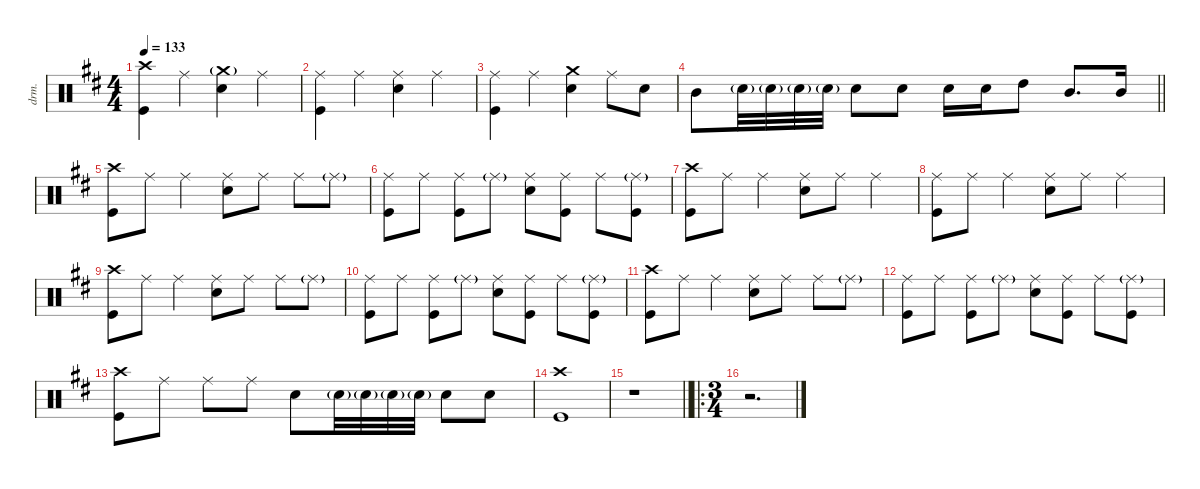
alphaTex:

\defaultSystemsLayout 4
\hideDynamics
\bracketExtendMode nobrackets
\otherSystemsTrackNameOrientation horizontal
\track ("Drums" "drm.") {defaultSystemsLayout 4 instrument percussion}
\staff {score}
\articulation defaults
\ts (4 4)
\tempo 133
\clef neutral
\ks bminor
("Crash high (hit)"{acc forcenatural} "Kick (hit)"{acc forcenatural}).4{dy f beam Down} "Ride (middle)"{acc forcenatural}.4{beam Down} ("Crash medium (hit)"{g acc forcenatural} "Snare (hit) 2"{acc forcenatural}).4{beam Down} "Ride (middle)"{acc forcenatural}.4{beam Down} |
("Ride (middle)"{acc forcenatural} "Kick (hit)"{acc forcenatural}).4{beam Down} "Ride (middle)"{acc forcenatural}.4{beam Down} ("Ride (middle)"{acc forcenatural} "Snare (hit) 2"{acc forcenatural}).4{beam Down} "Ride (middle)"{acc forcenatural}.4{beam Down} |
("Ride (middle)"{acc forcenatural} "Kick (hit)"{acc forcenatural}).4{beam Down} "Ride (middle)"{acc forcenatural}.4{beam Down} ("Crash medium (hit)"{acc forcenatural} "Snare (hit) 2"{acc forcenatural}).4{beam Down} "Ride (middle)"{acc forcenatural}.8{beam Down} "Snare (hit) 2"{acc forcenatural}.8{beam Down} |
\barLineRight lightlight "Mid Tom (hit)"{acc forcenatural}.8{beam Down} "Snare (hit) 2"{g acc forcenatural}.32{dy mf beam Down} "Snare (hit) 2"{g acc forcenatural}.32{dy mp beam Down} "Snare (hit) 2"{g acc forcenatural}.32{dy mf beam Down} "Snare (hit) 2"{g acc forcenatural}.32{dy p beam Down} "Snare (hit) 2"{acc forcenatural}.8{dy f beam Down} "Snare (hit) 2"{acc forcenatural}.8{beam Down} "Snare (hit) 2"{acc forcenatural}.16{beam Down} "Snare (hit) 2"{acc forcenatural}.16{dy mf beam Down} "High Tom (hit)"{acc forcenatural}.8{dy f beam Down} "Mid Tom (hit)"{acc forcenatural}.8{d beam Up} "Mid Tom (hit)"{acc forcenatural}.16{beam Up}
|
("Crash high (hit)"{acc forcenatural} "Kick (hit)"{acc forcenatural}).8{beam Down} "Ride (middle)"{acc forcenatural}.8{beam Down} "Ride (middle)"{acc forcenatural}.4{beam Down} ("Ride (middle)"{acc forcenatural} "Snare (hit) 2"{acc forcenatural}).8{beam Down} "Ride (middle)"{acc forcenatural}.8{beam Down} "Ride (middle)"{acc forcenatural}.8{beam Down} "Ride (middle)"{g acc forcenatural}.8{dy mf beam Down} |
("Ride (middle)"{acc forcenatural} "Kick (hit)"{acc forcenatural}).8{dy f beam Down} "Ride (middle)"{acc forcenatural}.8{beam Down} ("Ride (middle)"{acc forcenatural} "Kick (hit)"{acc forcenatural}).8{beam Down} "Ride (middle)"{g acc forcenatural}.8{dy mf beam Down} ("Ride (middle)"{acc forcenatural} "Snare (hit) 2"{acc forcenatural}).8{dy f beam Down} ("Ride (middle)"{acc forcenatural} "Kick (hit)"{acc forcenatural}).8{beam Down} "Ride (middle)"{acc forcenatural}.8{beam Down} ("Ride (middle)"{g acc forcenatural} "Kick (hit)"{acc forcenatural}).8{beam Down} |
("Crash high (hit)"{acc forcenatural} "Kick (hit)"{acc forcenatural}).8{beam Down} "Ride (middle)"{acc forcenatural}.8{beam Down} "Ride (middle)"{acc forcenatural}.4{beam Down} ("Ride (middle)"{acc forcenatural} "Snare (hit) 2"{acc forcenatural}).8{beam Down} "Ride (middle)"{acc forcenatural}.8{beam Down} "Ride (middle)"{acc forcenatural}.4{beam Down} |
("Ride (middle)"{acc forcenatural} "Kick (hit)"{acc forcenatural}).8{beam Down} "Ride (middle)"{acc forcenatural}.8{beam Down} "Ride (middle)"{acc forcenatural}.4{beam Down} ("Ride (middle)"{acc forcenatural} "Snare (hit) 2"{acc forcenatural}).8{beam Down} "Ride (middle)"{acc forcenatural}.8{beam Down} "Ride (middle)"{acc forcenatural}.4{beam Down} |
("Crash high (hit)"{acc forcenatural} "Kick (hit)"{acc forcenatural}).8{beam Down} "Ride (middle)"{acc forcenatural}.8{beam Down} "Ride (middle)"{acc forcenatural}.4{beam Down} ("Ride (middle)"{acc forcenatural} "Snare (hit) 2"{acc forcenatural}).8{beam Down} "Ride (middle)"{acc forcenatural}.8{beam Down} "Ride (middle)"{acc forcenatural}.8{beam Down} "Ride (middle)"{g acc forcenatural}.8{dy mf beam Down} |
("Ride (middle)"{acc forcenatural} "Kick (hit)"{acc forcenatural}).8{dy f beam Down} "Ride (middle)"{acc forcenatural}.8{beam Down} ("Ride (middle)"{acc forcenatural} "Kick (hit)"{acc forcenatural}).8{beam Down} "Ride (middle)"{g acc forcenatural}.8{dy mf beam Down} ("Ride (middle)"{acc forcenatural} "Snare (hit) 2"{acc forcenatural}).8{dy f beam Down} ("Ride (middle)"{acc forcenatural} "Kick (hit)"{acc forcenatural}).8{beam Down} "Ride (middle)"{acc forcenatural}.8{beam Down} ("Ride (middle)"{g acc forcenatural} "Kick (hit)"{acc forcenatural}).8{beam Down} |
("Crash high (hit)"{acc forcenatural} "Kick (hit)"{acc forcenatural}).8{beam Down} "Ride (middle)"{acc forcenatural}.8{beam Down} "Ride (middle)"{acc forcenatural}.4{beam Down} ("Ride (middle)"{acc forcenatural} "Snare (hit) 2"{acc forcenatural}).8{beam Down} "Ride (middle)"{acc forcenatural}.8{beam Down} "Ride (middle)"{acc forcenatural}.8{beam Down} "Ride (middle)"{g acc forcenatural}.8{dy mf beam Down} |
("Ride (middle)"{acc forcenatural} "Kick (hit)"{acc forcenatural}).8{dy f beam Down} "Ride (middle)"{acc forcenatural}.8{beam Down} ("Ride (middle)"{acc forcenatural} "Kick (hit)"{acc forcenatural}).8{beam Down} "Ride (middle)"{g acc forcenatural}.8{dy mf beam Down} ("Ride (middle)"{acc forcenatural} "Snare (hit) 2"{acc forcenatural}).8{dy f beam Down} ("Ride (middle)"{acc forcenatural} "Kick (hit)"{acc forcenatural}).8{beam Down} "Ride (middle)"{acc forcenatural}.8{beam Down} ("Ride (middle)"{g acc forcenatural} "Kick (hit)"{acc forcenatural}).8{beam Down} |
("Crash high (hit)"{acc forcenatural} "Kick (hit)"{acc forcenatural}).8{beam Down} "Ride (middle)"{acc forcenatural}.8{beam Down} "Ride (middle)"{acc forcenatural}.8{beam Down} "Ride (middle)"{acc forcenatural}.8{beam Down} "Snare (hit) 2"{acc forcenatural}.8{beam Down} "Snare (hit) 2"{g acc forcenatural}.32{dy mf beam Down} "Snare (hit) 2"{g acc forcenatural}.32{dy mp beam Down} "Snare (hit) 2"{g acc forcenatural}.32{dy mf beam Down} "Snare (hit) 2"{g acc forcenatural}.32{dy mp beam Down} "Snare (hit) 2"{acc forcenatural}.8{dy f beam Down} "Snare (hit) 2"{acc forcenatural}.8{dy ff beam Down} |
("Crash high (hit)"{acc forcenatural} "Kick (hit)"{acc forcenatural}).1{dy fff beam Down} |
\barLineRight lightlight
r.1{beam Down} |
\ro
\ts (3 4)
\beaming (8 2 2 2)
r.2{d beam Down}
